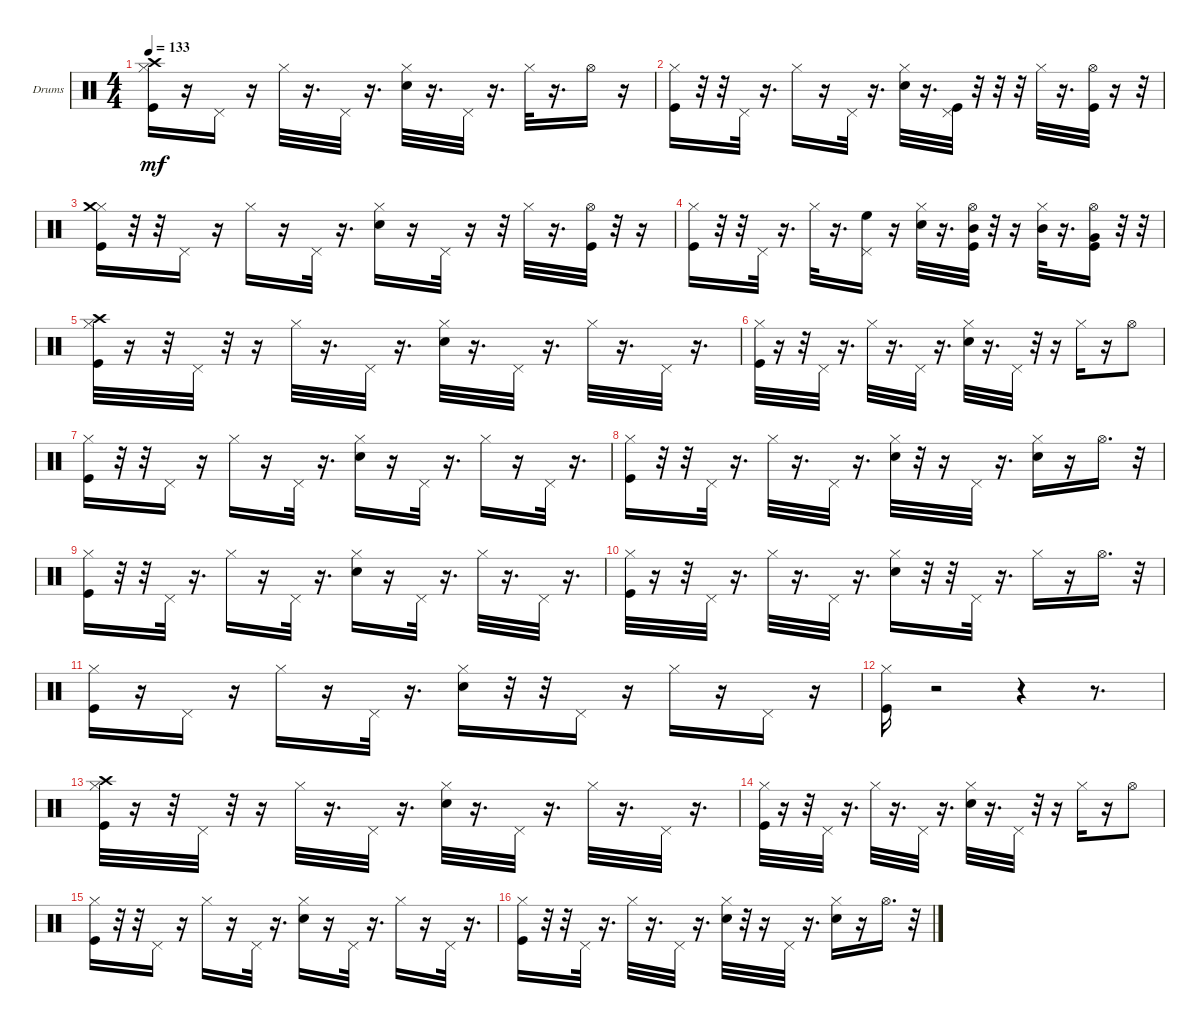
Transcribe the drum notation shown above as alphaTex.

\defaultSystemsLayout 4
\bracketExtendMode groupsimilarinstruments
\firstSystemTrackNameOrientation horizontal
\otherSystemsTrackNameOrientation horizontal
\track ("Drumkit" "Drums") {instrument percussion}
\staff {score}
\articulation defaults
\ts (4 4)
\tempo 133
\clef neutral
\ks c
("Kick (hit)" "Hi-Hat (closed)" "Crash high (hit)").16{dy mf} r.16 "Pedal Hi-Hat (hit)".16 r.16 "Hi-Hat (closed)".32 r.16{d} "Pedal Hi-Hat (hit)".32 r.16{d} ("Snare (hit) 2" "Hi-Hat (closed)").32 r.16{d} "Pedal Hi-Hat (hit)".32 r.16{d} "Hi-Hat (closed)".32 r.16{d} "Hi-Hat (open)".16 r.16 |
("Kick (hit)" "Hi-Hat (closed)").16 r.32 r.32 "Pedal Hi-Hat (hit)".32 r.16{d} "Hi-Hat (closed)".16 r.16 "Pedal Hi-Hat (hit)".32 r.16{d} ("Snare (hit) 2" "Hi-Hat (closed)").32 r.16{d} ("Kick (hit)" "Pedal Hi-Hat (hit)").32 r.32 r.32 r.32 "Hi-Hat (closed)".32 r.16{d} ("Kick (hit)" "Hi-Hat (open)").32 r.16 r.32 |
("Kick (hit)" "Hi-Hat (closed)" "Crash medium (hit)").16 r.32 r.32 "Pedal Hi-Hat (hit)".16 r.16 "Hi-Hat (closed)".16 r.16 "Pedal Hi-Hat (hit)".32 r.16{d} ("Snare (hit) 2" "Hi-Hat (closed)").16 r.16 "Pedal Hi-Hat (hit)".32 r.16 r.32 "Hi-Hat (closed)".32 r.16{d} ("Kick (hit)" "Hi-Hat (open)").32 r.32 r.16 |
("Kick (hit)" "Hi-Hat (closed)").16 r.32 r.32 "Pedal Hi-Hat (hit)".32 r.16{d} "Hi-Hat (closed)".32 r.16{d} ("Pedal Hi-Hat (hit)" "High Floor Tom (hit)").16 r.16 ("Snare (hit) 2" "Hi-Hat (closed)").32 r.16{d} ("Kick (hit)" "Hi-Hat (open)" "Mid Tom (hit)").32 r.32 r.16 ("Hi-Hat (closed)" "Mid Tom (hit)").32 r.16{d} ("Kick (hit)" "Hi-Hat (open)" "Very Low Tom (hit)").16 r.32 r.32 |
("Kick (hit)" "Hi-Hat (closed)" "Crash high (hit)").32 r.16 r.32 "Pedal Hi-Hat (hit)".32 r.32 r.16 "Hi-Hat (closed)".32 r.16{d} "Pedal Hi-Hat (hit)".32 r.16{d} ("Snare (hit) 2" "Hi-Hat (closed)").32 r.16{d} "Pedal Hi-Hat (hit)".32 r.16{d} "Hi-Hat (closed)".32 r.16{d} "Pedal Hi-Hat (hit)".32 r.16{d} |
("Kick (hit)" "Hi-Hat (closed)").32 r.16 r.32 "Pedal Hi-Hat (hit)".32 r.16{d} "Hi-Hat (closed)".32 r.16{d} "Pedal Hi-Hat (hit)".32 r.16{d} ("Snare (hit) 2" "Hi-Hat (closed)").32 r.16{d} "Pedal Hi-Hat (hit)".32 r.32 r.16 "Hi-Hat (closed)".16 r.16 "Hi-Hat (open)".8 |
("Kick (hit)" "Hi-Hat (closed)").16 r.32 r.32 "Pedal Hi-Hat (hit)".16 r.16 "Hi-Hat (closed)".16 r.16 "Pedal Hi-Hat (hit)".32 r.16{d} ("Snare (hit) 2" "Hi-Hat (closed)").16 r.16 "Pedal Hi-Hat (hit)".32 r.16{d} "Hi-Hat (closed)".16 r.16 "Pedal Hi-Hat (hit)".32 r.16{d} |
("Kick (hit)" "Hi-Hat (closed)").16 r.32 r.32 "Pedal Hi-Hat (hit)".32 r.16{d} "Hi-Hat (closed)".32 r.16{d} "Pedal Hi-Hat (hit)".32 r.16{d} ("Snare (hit) 2" "Hi-Hat (closed)").32 r.32 r.16 "Pedal Hi-Hat (hit)".32 r.16{d} ("Snare (hit) 2" "Hi-Hat (closed)").16 r.16 "Hi-Hat (open)".16{d} r.32 |
("Kick (hit)" "Hi-Hat (closed)").16 r.32 r.32 "Pedal Hi-Hat (hit)".32 r.16{d} "Hi-Hat (closed)".16 r.16 "Pedal Hi-Hat (hit)".32 r.16{d} ("Snare (hit) 2" "Hi-Hat (closed)").16 r.16 "Pedal Hi-Hat (hit)".32 r.16{d} "Hi-Hat (closed)".32 r.16{d} "Pedal Hi-Hat (hit)".32 r.16{d} |
("Kick (hit)" "Hi-Hat (closed)").32 r.16 r.32 "Pedal Hi-Hat (hit)".32 r.16{d} "Hi-Hat (closed)".32 r.16{d} "Pedal Hi-Hat (hit)".32 r.16{d} ("Snare (hit) 2" "Hi-Hat (closed)").16 r.32 r.32 "Pedal Hi-Hat (hit)".32 r.16{d} "Hi-Hat (closed)".16 r.16 "Hi-Hat (open)".16{d} r.32 |
("Kick (hit)" "Hi-Hat (closed)").16 r.16 "Pedal Hi-Hat (hit)".16 r.16 "Hi-Hat (closed)".16 r.16 "Pedal Hi-Hat (hit)".32 r.16{d} ("Snare (hit) 2" "Hi-Hat (closed)").16 r.32 r.32 "Pedal Hi-Hat (hit)".16 r.16 "Hi-Hat (closed)".16 r.16 "Pedal Hi-Hat (hit)".16 r.16 |
("Kick (hit)" "Hi-Hat (closed)").16 r.2 r.4 r.8{d} |
("Kick (hit)" "Hi-Hat (closed)" "Crash high (hit)").32 r.16 r.32 "Pedal Hi-Hat (hit)".32 r.32 r.16 "Hi-Hat (closed)".32 r.16{d} "Pedal Hi-Hat (hit)".32 r.16{d} ("Snare (hit) 2" "Hi-Hat (closed)").32 r.16{d} "Pedal Hi-Hat (hit)".32 r.16{d} "Hi-Hat (closed)".32 r.16{d} "Pedal Hi-Hat (hit)".32 r.16{d} |
("Kick (hit)" "Hi-Hat (closed)").32 r.16 r.32 "Pedal Hi-Hat (hit)".32 r.16{d} "Hi-Hat (closed)".32 r.16{d} "Pedal Hi-Hat (hit)".32 r.16{d} ("Snare (hit) 2" "Hi-Hat (closed)").32 r.16{d} "Pedal Hi-Hat (hit)".32 r.32 r.16 "Hi-Hat (closed)".16 r.16 "Hi-Hat (open)".8 |
("Kick (hit)" "Hi-Hat (closed)").16 r.32 r.32 "Pedal Hi-Hat (hit)".16 r.16 "Hi-Hat (closed)".16 r.16 "Pedal Hi-Hat (hit)".32 r.16{d} ("Snare (hit) 2" "Hi-Hat (closed)").16 r.16 "Pedal Hi-Hat (hit)".32 r.16{d} "Hi-Hat (closed)".16 r.16 "Pedal Hi-Hat (hit)".32 r.16{d} |
("Kick (hit)" "Hi-Hat (closed)").16 r.32 r.32 "Pedal Hi-Hat (hit)".32 r.16{d} "Hi-Hat (closed)".32 r.16{d} "Pedal Hi-Hat (hit)".32 r.16{d} ("Snare (hit) 2" "Hi-Hat (closed)").32 r.32 r.16 "Pedal Hi-Hat (hit)".32 r.16{d} ("Snare (hit) 2" "Hi-Hat (closed)").16 r.16 "Hi-Hat (open)".16{d} r.32
